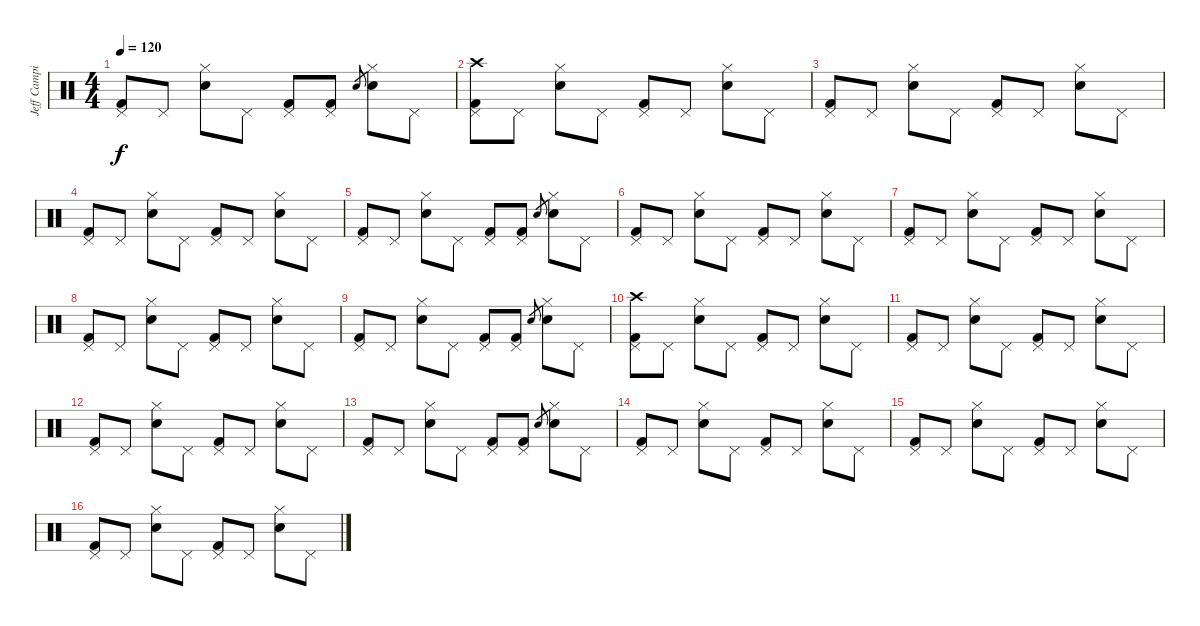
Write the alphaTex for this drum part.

\track ("Jeff Campitelli" "Jeff Campi") {instrument percussion}
\staff {score}
\articulation defaults
\ts (4 4)
\tempo 120
\clef neutral
\ks c
("Pedal Hi-Hat (hit)" "Kick (hit) 2").8{dy f} "Pedal Hi-Hat (hit)".8 ("Hi-Hat (closed)" "Snare (hit) 2").8 "Pedal Hi-Hat (hit)".8 ("Pedal Hi-Hat (hit)" "Kick (hit) 2").8 ("Pedal Hi-Hat (hit)" "Kick (hit) 2").8 "Snare (hit) 2".8{gr} ("Hi-Hat (closed)" "Snare (hit) 2").8 "Pedal Hi-Hat (hit)".8 |
("Crash high (hit)" "Pedal Hi-Hat (hit)" "Kick (hit) 2").8 "Pedal Hi-Hat (hit)".8 ("Hi-Hat (closed)" "Snare (hit) 2").8 "Pedal Hi-Hat (hit)".8 ("Pedal Hi-Hat (hit)" "Kick (hit) 2").8 "Pedal Hi-Hat (hit)".8 ("Hi-Hat (closed)" "Snare (hit) 2").8 "Pedal Hi-Hat (hit)".8 |
("Pedal Hi-Hat (hit)" "Kick (hit) 2").8 "Pedal Hi-Hat (hit)".8 ("Hi-Hat (closed)" "Snare (hit) 2").8 "Pedal Hi-Hat (hit)".8 ("Pedal Hi-Hat (hit)" "Kick (hit) 2").8 "Pedal Hi-Hat (hit)".8 ("Hi-Hat (closed)" "Snare (hit) 2").8 "Pedal Hi-Hat (hit)".8 |
("Pedal Hi-Hat (hit)" "Kick (hit) 2").8 "Pedal Hi-Hat (hit)".8 ("Hi-Hat (closed)" "Snare (hit) 2").8 "Pedal Hi-Hat (hit)".8 ("Pedal Hi-Hat (hit)" "Kick (hit) 2").8 "Pedal Hi-Hat (hit)".8 ("Hi-Hat (closed)" "Snare (hit) 2").8 "Pedal Hi-Hat (hit)".8 |
("Pedal Hi-Hat (hit)" "Kick (hit) 2").8 "Pedal Hi-Hat (hit)".8 ("Hi-Hat (closed)" "Snare (hit) 2").8 "Pedal Hi-Hat (hit)".8 ("Pedal Hi-Hat (hit)" "Kick (hit) 2").8 ("Pedal Hi-Hat (hit)" "Kick (hit) 2").8 "Snare (hit) 2".8{gr} ("Hi-Hat (closed)" "Snare (hit) 2").8 "Pedal Hi-Hat (hit)".8 |
("Pedal Hi-Hat (hit)" "Kick (hit) 2").8 "Pedal Hi-Hat (hit)".8 ("Hi-Hat (closed)" "Snare (hit) 2").8 "Pedal Hi-Hat (hit)".8 ("Pedal Hi-Hat (hit)" "Kick (hit) 2").8 "Pedal Hi-Hat (hit)".8 ("Hi-Hat (closed)" "Snare (hit) 2").8 "Pedal Hi-Hat (hit)".8 |
("Pedal Hi-Hat (hit)" "Kick (hit) 2").8 "Pedal Hi-Hat (hit)".8 ("Hi-Hat (closed)" "Snare (hit) 2").8 "Pedal Hi-Hat (hit)".8 ("Pedal Hi-Hat (hit)" "Kick (hit) 2").8 "Pedal Hi-Hat (hit)".8 ("Hi-Hat (closed)" "Snare (hit) 2").8 "Pedal Hi-Hat (hit)".8 |
("Pedal Hi-Hat (hit)" "Kick (hit) 2").8 "Pedal Hi-Hat (hit)".8 ("Hi-Hat (closed)" "Snare (hit) 2").8 "Pedal Hi-Hat (hit)".8 ("Pedal Hi-Hat (hit)" "Kick (hit) 2").8 "Pedal Hi-Hat (hit)".8 ("Hi-Hat (closed)" "Snare (hit) 2").8 "Pedal Hi-Hat (hit)".8 |
("Pedal Hi-Hat (hit)" "Kick (hit) 2").8 "Pedal Hi-Hat (hit)".8 ("Hi-Hat (closed)" "Snare (hit) 2").8 "Pedal Hi-Hat (hit)".8 ("Pedal Hi-Hat (hit)" "Kick (hit) 2").8 ("Pedal Hi-Hat (hit)" "Kick (hit) 2").8 "Snare (hit) 2".8{gr} ("Hi-Hat (closed)" "Snare (hit) 2").8 "Pedal Hi-Hat (hit)".8 |
("Crash high (hit)" "Pedal Hi-Hat (hit)" "Kick (hit) 2").8 "Pedal Hi-Hat (hit)".8 ("Hi-Hat (closed)" "Snare (hit) 2").8 "Pedal Hi-Hat (hit)".8 ("Pedal Hi-Hat (hit)" "Kick (hit) 2").8 "Pedal Hi-Hat (hit)".8 ("Hi-Hat (closed)" "Snare (hit) 2").8 "Pedal Hi-Hat (hit)".8 |
("Pedal Hi-Hat (hit)" "Kick (hit) 2").8 "Pedal Hi-Hat (hit)".8 ("Hi-Hat (closed)" "Snare (hit) 2").8 "Pedal Hi-Hat (hit)".8 ("Pedal Hi-Hat (hit)" "Kick (hit) 2").8 "Pedal Hi-Hat (hit)".8 ("Hi-Hat (closed)" "Snare (hit) 2").8 "Pedal Hi-Hat (hit)".8 |
("Pedal Hi-Hat (hit)" "Kick (hit) 2").8 "Pedal Hi-Hat (hit)".8 ("Hi-Hat (closed)" "Snare (hit) 2").8 "Pedal Hi-Hat (hit)".8 ("Pedal Hi-Hat (hit)" "Kick (hit) 2").8 "Pedal Hi-Hat (hit)".8 ("Hi-Hat (closed)" "Snare (hit) 2").8 "Pedal Hi-Hat (hit)".8 |
("Pedal Hi-Hat (hit)" "Kick (hit) 2").8 "Pedal Hi-Hat (hit)".8 ("Hi-Hat (closed)" "Snare (hit) 2").8 "Pedal Hi-Hat (hit)".8 ("Pedal Hi-Hat (hit)" "Kick (hit) 2").8 ("Pedal Hi-Hat (hit)" "Kick (hit) 2").8 "Snare (hit) 2".8{gr} ("Hi-Hat (closed)" "Snare (hit) 2").8 "Pedal Hi-Hat (hit)".8 |
("Pedal Hi-Hat (hit)" "Kick (hit) 2").8 "Pedal Hi-Hat (hit)".8 ("Hi-Hat (closed)" "Snare (hit) 2").8 "Pedal Hi-Hat (hit)".8 ("Pedal Hi-Hat (hit)" "Kick (hit) 2").8 "Pedal Hi-Hat (hit)".8 ("Hi-Hat (closed)" "Snare (hit) 2").8 "Pedal Hi-Hat (hit)".8 |
("Pedal Hi-Hat (hit)" "Kick (hit) 2").8 "Pedal Hi-Hat (hit)".8 ("Hi-Hat (closed)" "Snare (hit) 2").8 "Pedal Hi-Hat (hit)".8 ("Pedal Hi-Hat (hit)" "Kick (hit) 2").8 "Pedal Hi-Hat (hit)".8 ("Hi-Hat (closed)" "Snare (hit) 2").8 "Pedal Hi-Hat (hit)".8 |
("Pedal Hi-Hat (hit)" "Kick (hit) 2").8 "Pedal Hi-Hat (hit)".8 ("Hi-Hat (closed)" "Snare (hit) 2").8 "Pedal Hi-Hat (hit)".8 ("Pedal Hi-Hat (hit)" "Kick (hit) 2").8 "Pedal Hi-Hat (hit)".8 ("Hi-Hat (closed)" "Snare (hit) 2").8 "Pedal Hi-Hat (hit)".8
